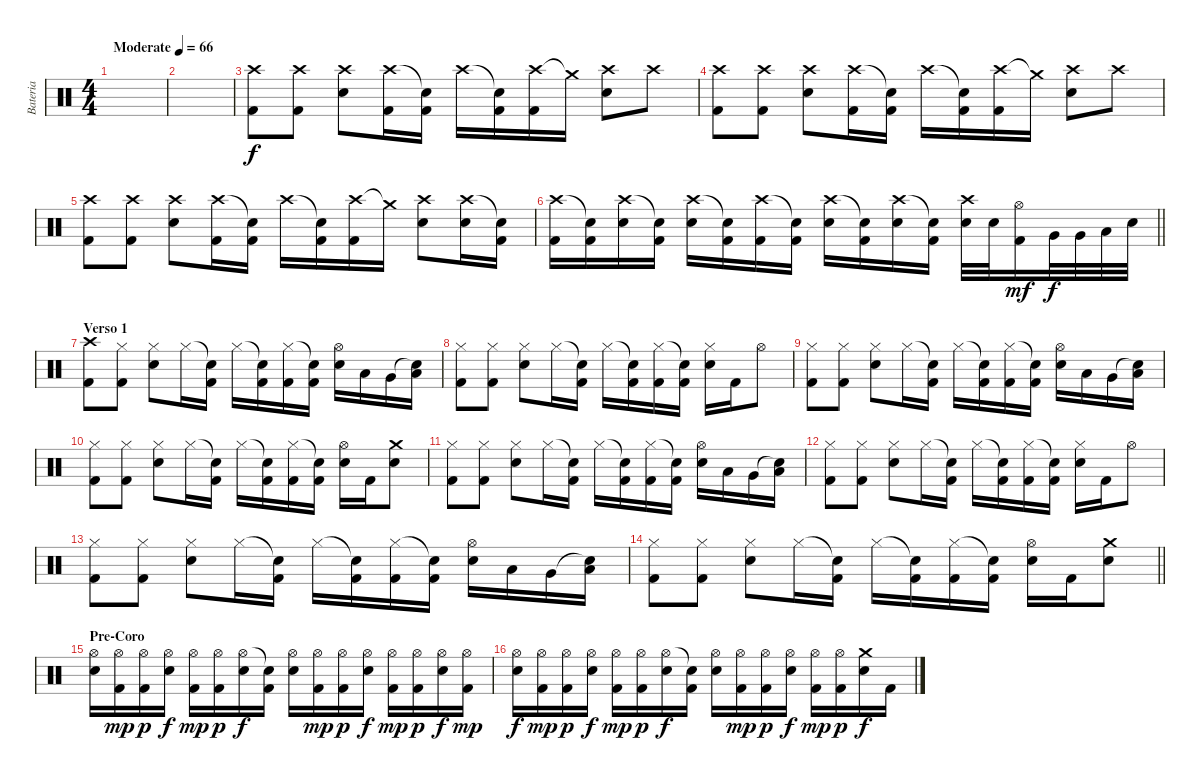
\track ("Bateria" "Bateria") {instrument percussion}
\staff {score}
\articulation defaults
\ts (4 4)
\tempo (66 "Moderate")
\clef neutral
\ks c
|
|
("Crash high (hit)" "Kick (hit) 2").8 ("Crash high (hit)" "Kick (hit) 2").8 ("Crash high (hit)" "Electric Snare (hit)").8 ("Crash high (hit)" "Kick (hit) 2").16 ("Snare (hit)"{t} "Kick (hit) 2").16 "Crash high (hit)".16 ("Snare (hit)"{t} "Kick (hit) 2").16 ("Crash high (hit)" "Kick (hit) 2").16 "Crash medium (hit)"{t}.16 ("Crash high (hit)" "Electric Snare (hit)").8 "Crash high (hit)".8 |
("Crash high (hit)" "Kick (hit) 2").8 ("Crash high (hit)" "Kick (hit) 2").8 ("Crash high (hit)" "Electric Snare (hit)").8 ("Crash high (hit)" "Kick (hit) 2").16 ("Snare (hit)"{t} "Kick (hit) 2").16 "Crash high (hit)".16 ("Snare (hit)"{t} "Kick (hit) 2").16 ("Crash high (hit)" "Kick (hit) 2").16 "Crash medium (hit)"{t}.16 ("Crash high (hit)" "Electric Snare (hit)").8 "Crash high (hit)".8 |
("Crash high (hit)" "Kick (hit) 2").8 ("Crash high (hit)" "Kick (hit) 2").8 ("Crash high (hit)" "Electric Snare (hit)").8 ("Crash high (hit)" "Kick (hit) 2").16 ("Snare (hit)"{t} "Kick (hit) 2").16 "Crash high (hit)".16 ("Snare (hit)"{t} "Kick (hit) 2").16 ("Crash high (hit)" "Kick (hit) 2").16 "Crash medium (hit)"{t}.16 ("Crash high (hit)" "Electric Snare (hit)").8 ("Crash high (hit)" "Electric Snare (hit)").16 ("Snare (hit)"{t} "Kick (hit) 2").16 |
\barLineRight lightlight
("Crash high (hit)" "Kick (hit) 2").16 ("Snare (hit)"{t} "Kick (hit) 2").16 ("Crash high (hit)" "Electric Snare (hit)").16 ("Snare (hit)"{t} "Kick (hit) 2").16 ("Crash high (hit)" "Electric Snare (hit)").16 ("Snare (hit)"{t} "Kick (hit) 2").16 ("Crash high (hit)" "Kick (hit) 2").16 ("Snare (hit)"{t} "Kick (hit) 2").16 ("Crash high (hit)" "Electric Snare (hit)").16 ("Snare (hit)"{t} "Kick (hit) 2").16 ("Crash high (hit)" "Electric Snare (hit)").16 ("Snare (hit)"{t} "Kick (hit) 2").16 ("Crash high (hit)" "Electric Snare (hit)").32 "Electric Snare (hit)".32 ("Hi-Hat (open)" "Kick (hit) 2").16{dy mf} "Very Low Tom (hit)".32{dy f} "Very Low Tom (hit)".32 "Low Floor Tom (hit)".32 "Electric Snare (hit)".32 |
\section ("" "Verso 1")
("Crash high (hit)" "Kick (hit) 2").8 ("Hi-Hat (closed)" "Kick (hit) 2").8 ("Hi-Hat (closed)" "Electric Snare (hit)").8 "Hi-Hat (closed)".16 ("Snare (hit)"{t} "Kick (hit) 2").16 "Hi-Hat (closed)".16 ("Snare (hit)"{t} "Kick (hit) 2").16 ("Hi-Hat (closed)" "Kick (hit) 2").16 ("Snare (hit)"{t} "Kick (hit) 2").16 ("Hi-Hat (open)" "Electric Snare (hit)").16 "Low Tom (hit)".16 "Very Low Tom (hit)".16 ("Snare (hit)"{t} "Low Floor Tom (hit)").16 |
("Hi-Hat (closed)" "Kick (hit) 2").8 ("Hi-Hat (closed)" "Kick (hit) 2").8 ("Hi-Hat (closed)" "Electric Snare (hit)").8 "Hi-Hat (closed)".16 ("Snare (hit)"{t} "Kick (hit) 2").16 "Hi-Hat (closed)".16 ("Snare (hit)"{t} "Kick (hit) 2").16 ("Hi-Hat (closed)" "Kick (hit) 2").16 ("Snare (hit)"{t} "Kick (hit) 2").16 ("Hi-Hat (closed)" "Electric Snare (hit)").16 "Kick (hit) 2".16 "Hi-Hat (open)".8 |
("Hi-Hat (closed)" "Kick (hit) 2").8 ("Hi-Hat (closed)" "Kick (hit) 2").8 ("Hi-Hat (closed)" "Electric Snare (hit)").8 "Hi-Hat (closed)".16 ("Snare (hit)"{t} "Kick (hit) 2").16 "Hi-Hat (closed)".16 ("Snare (hit)"{t} "Kick (hit) 2").16 ("Hi-Hat (closed)" "Kick (hit) 2").16 ("Snare (hit)"{t} "Kick (hit) 2").16 ("Hi-Hat (open)" "Electric Snare (hit)").16 "Low Tom (hit)".16 "Very Low Tom (hit)".16 ("Snare (hit)"{t} "Low Floor Tom (hit)").16 |
("Hi-Hat (closed)" "Kick (hit) 2").8 ("Hi-Hat (closed)" "Kick (hit) 2").8 ("Hi-Hat (closed)" "Electric Snare (hit)").8 "Hi-Hat (closed)".16 ("Snare (hit)"{t} "Kick (hit) 2").16 "Hi-Hat (closed)".16 ("Snare (hit)"{t} "Kick (hit) 2").16 ("Hi-Hat (closed)" "Kick (hit) 2").16 ("Snare (hit)"{t} "Kick (hit) 2").16 ("Hi-Hat (open)" "Electric Snare (hit)").16 "Kick (hit) 2".16 ("Crash medium (hit)" "Electric Snare (hit)").8 |
("Hi-Hat (closed)" "Kick (hit) 2").8 ("Hi-Hat (closed)" "Kick (hit) 2").8 ("Hi-Hat (closed)" "Electric Snare (hit)").8 "Hi-Hat (closed)".16 ("Snare (hit)"{t} "Kick (hit) 2").16 "Hi-Hat (closed)".16 ("Snare (hit)"{t} "Kick (hit) 2").16 ("Hi-Hat (closed)" "Kick (hit) 2").16 ("Snare (hit)"{t} "Kick (hit) 2").16 ("Hi-Hat (open)" "Electric Snare (hit)").16 "Low Tom (hit)".16 "Very Low Tom (hit)".16 ("Snare (hit)"{t} "Low Floor Tom (hit)").16 |
("Hi-Hat (closed)" "Kick (hit) 2").8 ("Hi-Hat (closed)" "Kick (hit) 2").8 ("Hi-Hat (closed)" "Electric Snare (hit)").8 "Hi-Hat (closed)".16 ("Snare (hit)"{t} "Kick (hit) 2").16 "Hi-Hat (closed)".16 ("Snare (hit)"{t} "Kick (hit) 2").16 ("Hi-Hat (closed)" "Kick (hit) 2").16 ("Snare (hit)"{t} "Kick (hit) 2").16 ("Hi-Hat (closed)" "Electric Snare (hit)").16 "Kick (hit) 2".16 "Hi-Hat (open)".8 |
("Hi-Hat (closed)" "Kick (hit) 2").8 ("Hi-Hat (closed)" "Kick (hit) 2").8 ("Hi-Hat (closed)" "Electric Snare (hit)").8 "Hi-Hat (closed)".16 ("Snare (hit)"{t} "Kick (hit) 2").16 "Hi-Hat (closed)".16 ("Snare (hit)"{t} "Kick (hit) 2").16 ("Hi-Hat (closed)" "Kick (hit) 2").16 ("Snare (hit)"{t} "Kick (hit) 2").16 ("Hi-Hat (open)" "Electric Snare (hit)").16 "Low Tom (hit)".16 "Very Low Tom (hit)".16 ("Snare (hit)"{t} "Low Floor Tom (hit)").16 |
\barLineRight lightlight
("Hi-Hat (closed)" "Kick (hit) 2").8 ("Hi-Hat (closed)" "Kick (hit) 2").8 ("Hi-Hat (closed)" "Electric Snare (hit)").8 "Hi-Hat (closed)".16 ("Snare (hit)"{t} "Kick (hit) 2").16 "Hi-Hat (closed)".16 ("Snare (hit)"{t} "Kick (hit) 2").16 ("Hi-Hat (closed)" "Kick (hit) 2").16 ("Snare (hit)"{t} "Kick (hit) 2").16 ("Hi-Hat (open)" "Electric Snare (hit)").16 "Kick (hit) 2".16 ("Crash medium (hit)" "Electric Snare (hit)").8 |
\section ("" "Pre-Coro")
("Hi-Hat (open)" "Electric Snare (hit)").16 ("Hi-Hat (open)" "Kick (hit) 2").16{dy mp} ("Hi-Hat (open)" "Kick (hit) 2").16{dy p} ("Hi-Hat (open)" "Electric Snare (hit)").16{dy f} ("Hi-Hat (open)" "Kick (hit) 2").16{dy mp} ("Hi-Hat (open)" "Kick (hit) 2").16{dy p} ("Hi-Hat (open)" "Electric Snare (hit)").16{dy f} ("Snare (hit)"{t} "Kick (hit) 2").16 ("Hi-Hat (open)" "Electric Snare (hit)").16 ("Hi-Hat (open)" "Kick (hit) 2").16{dy mp} ("Hi-Hat (open)" "Kick (hit) 2").16{dy p} ("Hi-Hat (open)" "Electric Snare (hit)").16{dy f} ("Hi-Hat (open)" "Kick (hit) 2").16{dy mp} ("Hi-Hat (open)" "Kick (hit) 2").16{dy p} ("Hi-Hat (open)" "Electric Snare (hit)").16{dy f} ("Hi-Hat (open)" "Kick (hit) 2").16{dy mp} |
("Hi-Hat (open)" "Electric Snare (hit)").16{dy f} ("Hi-Hat (open)" "Kick (hit) 2").16{dy mp} ("Hi-Hat (open)" "Kick (hit) 2").16{dy p} ("Hi-Hat (open)" "Electric Snare (hit)").16{dy f} ("Hi-Hat (open)" "Kick (hit) 2").16{dy mp} ("Hi-Hat (open)" "Kick (hit) 2").16{dy p} ("Hi-Hat (open)" "Electric Snare (hit)").16{dy f} ("Snare (hit)"{t} "Kick (hit) 2").16 ("Hi-Hat (open)" "Electric Snare (hit)").16 ("Hi-Hat (open)" "Kick (hit) 2").16{dy mp} ("Hi-Hat (open)" "Kick (hit) 2").16{dy p} ("Hi-Hat (open)" "Electric Snare (hit)").16{dy f} ("Hi-Hat (open)" "Kick (hit) 2").16{dy mp} ("Hi-Hat (open)" "Kick (hit) 2").16{dy p} ("Crash medium (hit)" "Electric Snare (hit)").16{dy f} "Kick (hit) 2".16
